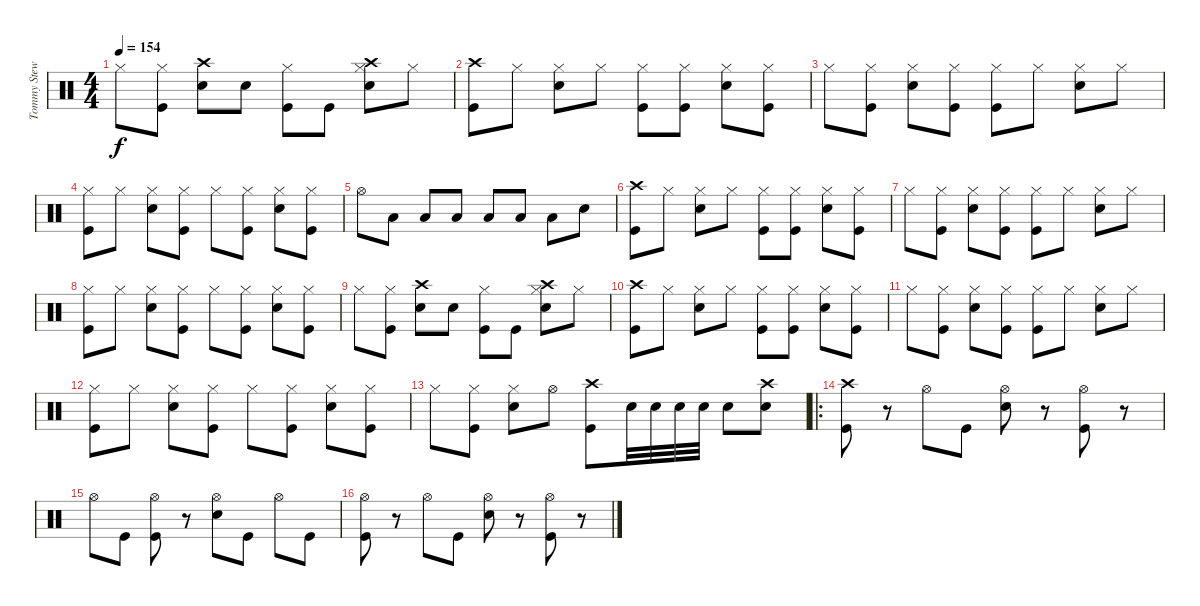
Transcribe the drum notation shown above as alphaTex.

\track ("Tommy Stewart" "Tommy Stew") {instrument percussion}
\staff {score}
\articulation defaults
\ts (4 4)
\tempo 154
\clef neutral
\ks c "Hi-Hat (closed)".8{dy f}
("Hi-Hat (closed)" "Kick (hit)").8 ("Crash high (hit)" "Snare (hit) 2").8 "Snare (hit) 2".8 ("Hi-Hat (closed)" "Kick (hit)").8 "Kick (hit)".8 ("Crash high (hit)" "Hi-Hat (closed)" "Snare (hit) 2").8 "Hi-Hat (closed)".8 |
("Crash high (hit)" "Kick (hit)").8 "Hi-Hat (closed)".8 ("Hi-Hat (closed)" "Snare (hit) 2").8 "Hi-Hat (closed)".8 ("Hi-Hat (closed)" "Kick (hit)").8 ("Hi-Hat (closed)" "Kick (hit)").8 ("Hi-Hat (closed)" "Snare (hit) 2").8 ("Hi-Hat (closed)" "Kick (hit)").8 |
"Hi-Hat (closed)".8 ("Hi-Hat (closed)" "Kick (hit)").8 ("Hi-Hat (closed)" "Snare (hit) 2").8 ("Hi-Hat (closed)" "Kick (hit)").8 ("Hi-Hat (closed)" "Kick (hit)").8 "Hi-Hat (closed)".8 ("Hi-Hat (closed)" "Snare (hit) 2").8 "Hi-Hat (closed)".8 |
("Hi-Hat (closed)" "Kick (hit)").8 "Hi-Hat (closed)".8 ("Hi-Hat (closed)" "Snare (hit) 2").8 ("Hi-Hat (closed)" "Kick (hit)").8 "Hi-Hat (closed)".8 ("Hi-Hat (closed)" "Kick (hit)").8 ("Hi-Hat (closed)" "Snare (hit) 2").8 ("Hi-Hat (closed)" "Kick (hit)").8 |
"Hi-Hat (open)".8 "Low Tom (hit)".8 "Low Floor Tom (hit)".8 "Low Floor Tom (hit)".8 "Low Tom (hit)".8 "Low Floor Tom (hit)".8 "Low Floor Tom (hit)".8 "Snare (hit) 2".8 |
("Crash high (hit)" "Kick (hit)").8 "Hi-Hat (closed)".8 ("Hi-Hat (closed)" "Snare (hit) 2").8 "Hi-Hat (closed)".8 ("Hi-Hat (closed)" "Kick (hit)").8 ("Hi-Hat (closed)" "Kick (hit)").8 ("Hi-Hat (closed)" "Snare (hit) 2").8 ("Hi-Hat (closed)" "Kick (hit)").8 |
"Hi-Hat (closed)".8 ("Hi-Hat (closed)" "Kick (hit)").8 ("Hi-Hat (closed)" "Snare (hit) 2").8 ("Hi-Hat (closed)" "Kick (hit)").8 ("Hi-Hat (closed)" "Kick (hit)").8 "Hi-Hat (closed)".8 ("Hi-Hat (closed)" "Snare (hit) 2").8 "Hi-Hat (closed)".8 |
("Hi-Hat (closed)" "Kick (hit)").8 "Hi-Hat (closed)".8 ("Hi-Hat (closed)" "Snare (hit) 2").8 ("Hi-Hat (closed)" "Kick (hit)").8 "Hi-Hat (closed)".8 ("Hi-Hat (closed)" "Kick (hit)").8 ("Hi-Hat (closed)" "Snare (hit) 2").8 ("Hi-Hat (closed)" "Kick (hit)").8 |
"Hi-Hat (closed)".8 ("Hi-Hat (closed)" "Kick (hit)").8 ("Crash high (hit)" "Snare (hit) 2").8 "Snare (hit) 2".8 ("Hi-Hat (closed)" "Kick (hit)").8 "Kick (hit)".8 ("Crash high (hit)" "Hi-Hat (closed)" "Snare (hit) 2").8 "Hi-Hat (closed)".8 |
("Crash high (hit)" "Kick (hit)").8 "Hi-Hat (closed)".8 ("Hi-Hat (closed)" "Snare (hit) 2").8 "Hi-Hat (closed)".8 ("Hi-Hat (closed)" "Kick (hit)").8 ("Hi-Hat (closed)" "Kick (hit)").8 ("Hi-Hat (closed)" "Snare (hit) 2").8 ("Hi-Hat (closed)" "Kick (hit)").8 |
"Hi-Hat (closed)".8 ("Hi-Hat (closed)" "Kick (hit)").8 ("Hi-Hat (closed)" "Snare (hit) 2").8 ("Hi-Hat (closed)" "Kick (hit)").8 ("Hi-Hat (closed)" "Kick (hit)").8 "Hi-Hat (closed)".8 ("Hi-Hat (closed)" "Snare (hit) 2").8 "Hi-Hat (closed)".8 |
("Hi-Hat (closed)" "Kick (hit)").8 "Hi-Hat (closed)".8 ("Hi-Hat (closed)" "Snare (hit) 2").8 ("Hi-Hat (closed)" "Kick (hit)").8 "Hi-Hat (closed)".8 ("Hi-Hat (closed)" "Kick (hit)").8 ("Hi-Hat (closed)" "Snare (hit) 2").8 ("Hi-Hat (closed)" "Kick (hit)").8 |
"Hi-Hat (closed)".8 ("Hi-Hat (closed)" "Kick (hit)").8 ("Hi-Hat (closed)" "Snare (hit) 2").8 "Hi-Hat (open)".8 ("Crash high (hit)" "Kick (hit)").8 "Snare (hit) 2".32 "Snare (hit) 2".32 "Snare (hit) 2".32 "Snare (hit) 2".32 "Snare (hit) 2".8 ("Crash high (hit)" "Snare (hit) 2").8 |
\ro
("Crash high (hit)" "Kick (hit)").8 r.8 "Hi-Hat (open)".8 "Kick (hit)".8 ("Hi-Hat (open)" "Snare (hit) 2").8 r.8 ("Hi-Hat (open)" "Kick (hit)").8 r.8 |
"Hi-Hat (open)".8 "Kick (hit)".8 ("Hi-Hat (open)" "Kick (hit)").8 r.8 ("Hi-Hat (open)" "Snare (hit) 2").8 "Kick (hit)".8 "Hi-Hat (open)".8 "Kick (hit)".8 |
("Hi-Hat (open)" "Kick (hit)").8 r.8 "Hi-Hat (open)".8 "Kick (hit)".8 ("Hi-Hat (open)" "Snare (hit) 2").8 r.8 ("Hi-Hat (open)" "Kick (hit)").8 r.8
